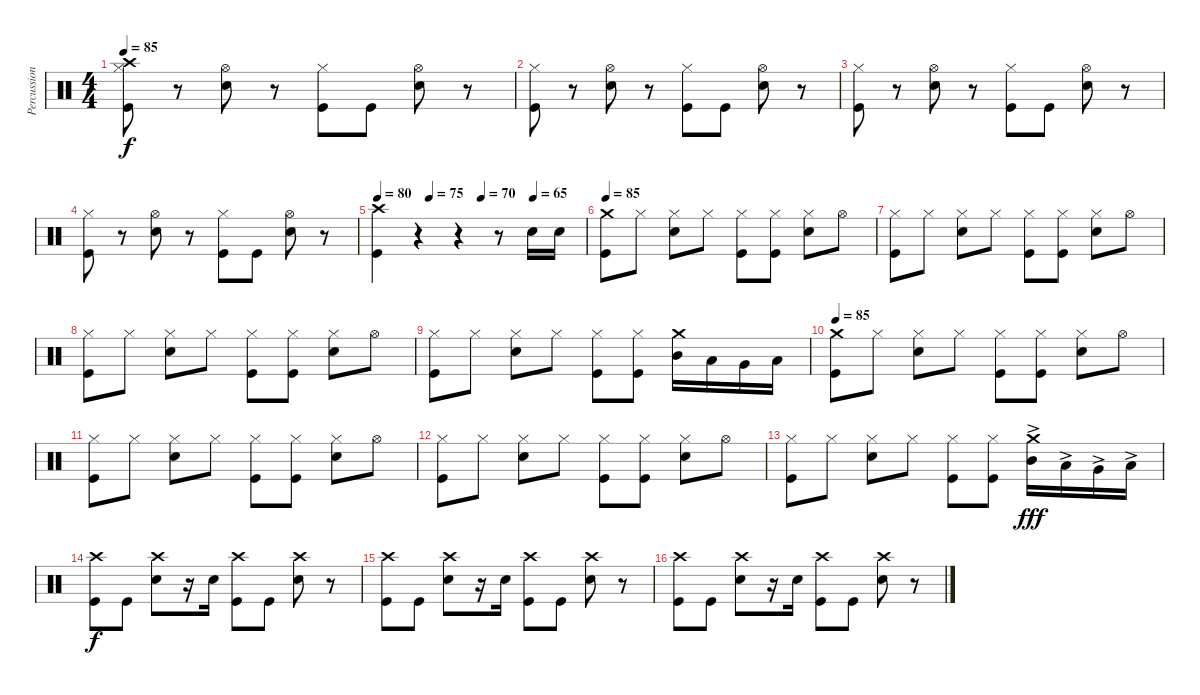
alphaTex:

\track ("Percussions" "Percussion") {instrument percussion}
\staff {score}
\articulation defaults
\ts (4 4)
\tempo 85
\clef neutral
\ks c
("Hi-Hat (closed)" "Crash high (hit)" "Kick (hit)").8{dy f} r.8 ("Hi-Hat (open)" "Electric Snare (hit)").8 r.8 ("Hi-Hat (closed)" "Kick (hit)").8 "Kick (hit)".8 ("Hi-Hat (open)" "Electric Snare (hit)").8 r.8 |
("Hi-Hat (closed)" "Kick (hit)").8 r.8 ("Hi-Hat (open)" "Electric Snare (hit)").8 r.8 ("Hi-Hat (closed)" "Kick (hit)").8 "Kick (hit)".8 ("Hi-Hat (open)" "Electric Snare (hit)").8 r.8 |
("Hi-Hat (closed)" "Kick (hit)").8 r.8 ("Hi-Hat (open)" "Electric Snare (hit)").8 r.8 ("Hi-Hat (closed)" "Kick (hit)").8 "Kick (hit)".8 ("Hi-Hat (open)" "Electric Snare (hit)").8 r.8 |
("Hi-Hat (closed)" "Kick (hit)").8 r.8 ("Hi-Hat (open)" "Electric Snare (hit)").8 r.8 ("Hi-Hat (closed)" "Kick (hit)").8 "Kick (hit)".8 ("Hi-Hat (open)" "Electric Snare (hit)").8 r.8 |
\tempo 80
\tempo (75 0.25)
\tempo (70 0.5)
\tempo (65 0.75)
("Crash high (hit)" "Kick (hit)").4 r.4 r.4 r.8 "Electric Snare (hit)".16 "Electric Snare (hit)".16 |
\tempo 85
("Crash medium (hit)" "Kick (hit)").8 "Hi-Hat (closed)".8 ("Hi-Hat (closed)" "Electric Snare (hit)").8 "Hi-Hat (closed)".8 ("Hi-Hat (closed)" "Kick (hit)").8 ("Hi-Hat (closed)" "Kick (hit)").8 ("Hi-Hat (closed)" "Electric Snare (hit)").8 "Hi-Hat (open)".8 |
("Hi-Hat (closed)" "Kick (hit)").8 "Hi-Hat (closed)".8 ("Hi-Hat (closed)" "Electric Snare (hit)").8 "Hi-Hat (closed)".8 ("Hi-Hat (closed)" "Kick (hit)").8 ("Hi-Hat (closed)" "Kick (hit)").8 ("Hi-Hat (closed)" "Electric Snare (hit)").8 "Hi-Hat (open)".8 |
("Hi-Hat (closed)" "Kick (hit)").8 "Hi-Hat (closed)".8 ("Hi-Hat (closed)" "Electric Snare (hit)").8 "Hi-Hat (closed)".8 ("Hi-Hat (closed)" "Kick (hit)").8 ("Hi-Hat (closed)" "Kick (hit)").8 ("Hi-Hat (closed)" "Electric Snare (hit)").8 "Hi-Hat (open)".8 |
("Hi-Hat (closed)" "Kick (hit)").8 "Hi-Hat (closed)".8 ("Hi-Hat (closed)" "Electric Snare (hit)").8 "Hi-Hat (closed)".8 ("Hi-Hat (closed)" "Kick (hit)").8 ("Hi-Hat (closed)" "Kick (hit)").8 ("Crash medium (hit)" "Mid Tom (hit)").16 "Low Tom (hit)".16 "Very Low Tom (hit)".16 "Low Floor Tom (hit)".16 |
\tempo 85
("Crash medium (hit)" "Kick (hit)").8 "Hi-Hat (closed)".8 ("Hi-Hat (closed)" "Electric Snare (hit)").8 "Hi-Hat (closed)".8 ("Hi-Hat (closed)" "Kick (hit)").8 ("Hi-Hat (closed)" "Kick (hit)").8 ("Hi-Hat (closed)" "Electric Snare (hit)").8 "Hi-Hat (open)".8 |
("Hi-Hat (closed)" "Kick (hit)").8 "Hi-Hat (closed)".8 ("Hi-Hat (closed)" "Electric Snare (hit)").8 "Hi-Hat (closed)".8 ("Hi-Hat (closed)" "Kick (hit)").8 ("Hi-Hat (closed)" "Kick (hit)").8 ("Hi-Hat (closed)" "Electric Snare (hit)").8 "Hi-Hat (open)".8 |
("Hi-Hat (closed)" "Kick (hit)").8 "Hi-Hat (closed)".8 ("Hi-Hat (closed)" "Electric Snare (hit)").8 "Hi-Hat (closed)".8 ("Hi-Hat (closed)" "Kick (hit)").8 ("Hi-Hat (closed)" "Kick (hit)").8 ("Hi-Hat (closed)" "Electric Snare (hit)").8 "Hi-Hat (open)".8 |
("Hi-Hat (closed)" "Kick (hit)").8 "Hi-Hat (closed)".8 ("Hi-Hat (closed)" "Electric Snare (hit)").8 "Hi-Hat (closed)".8 ("Hi-Hat (closed)" "Kick (hit)").8 ("Hi-Hat (closed)" "Kick (hit)").8 ("Crash medium (hit)" "Mid Tom (hit)"{ac}).16{dy fff} "Low Tom (hit)"{ac}.16 "Very Low Tom (hit)"{ac}.16 "Low Floor Tom (hit)"{ac}.16 |
("Crash high (hit)" "Kick (hit)").8{dy f} "Kick (hit)".8 ("Crash high (hit)" "Electric Snare (hit)").8 r.16 "Electric Snare (hit)".16 ("Crash high (hit)" "Kick (hit)").8 "Kick (hit)".8 ("Crash high (hit)" "Electric Snare (hit)").8 r.8 |
("Crash high (hit)" "Kick (hit)").8 "Kick (hit)".8 ("Crash high (hit)" "Electric Snare (hit)").8 r.16 "Electric Snare (hit)".16 ("Crash high (hit)" "Kick (hit)").8 "Kick (hit)".8 ("Crash high (hit)" "Electric Snare (hit)").8 r.8 |
("Crash high (hit)" "Kick (hit)").8 "Kick (hit)".8 ("Crash high (hit)" "Electric Snare (hit)").8 r.16 "Electric Snare (hit)".16 ("Crash high (hit)" "Kick (hit)").8 "Kick (hit)".8 ("Crash high (hit)" "Electric Snare (hit)").8 r.8
